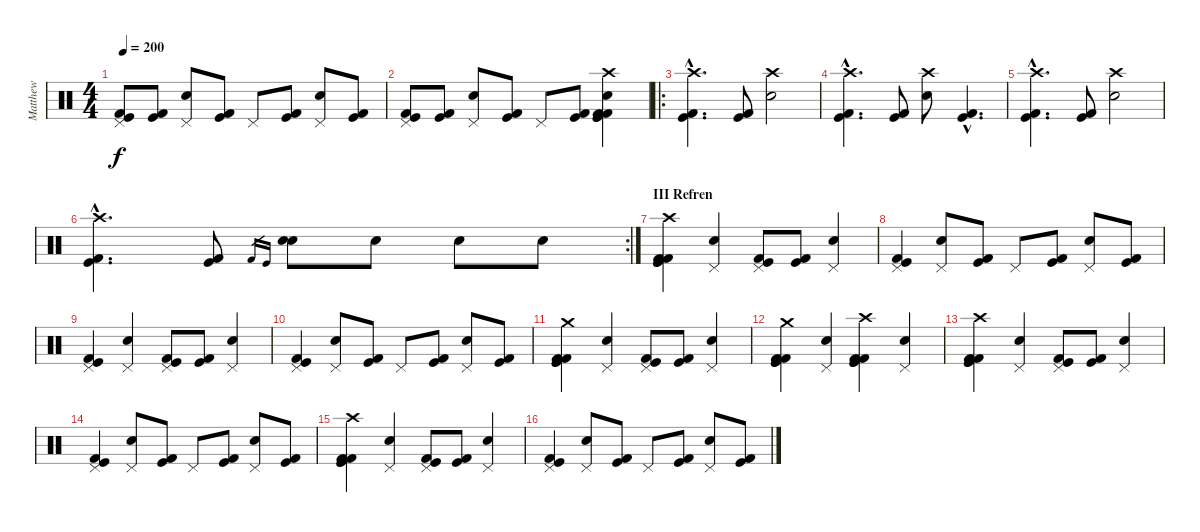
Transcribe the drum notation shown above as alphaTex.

\track ("Matthew" "Matthew") {instrument percussion}
\staff {score}
\articulation defaults
\ts (4 4)
\tempo 200
\clef neutral
\ks c
("Kick (hit) 2" "Kick (hit)" "Pedal Hi-Hat (hit)").8{dy f} ("Kick (hit) 2" "Kick (hit)").8 ("Snare (hit) 2" "Pedal Hi-Hat (hit)").8 ("Kick (hit) 2" "Kick (hit)").8 "Pedal Hi-Hat (hit)".8 ("Kick (hit) 2" "Kick (hit)").8 ("Pedal Hi-Hat (hit)" "Snare (hit) 2").8 ("Kick (hit) 2" "Kick (hit)").8 |
("Kick (hit) 2" "Kick (hit)" "Pedal Hi-Hat (hit)").8 ("Kick (hit) 2" "Kick (hit)").8 ("Snare (hit) 2" "Pedal Hi-Hat (hit)").8 ("Kick (hit) 2" "Kick (hit)").8 "Pedal Hi-Hat (hit)".8 ("Kick (hit) 2" "Kick (hit)").8 ("Kick (hit)" "Snare (hit) 2" "Crash high (hit)" "Kick (hit) 2" "Kick (hit)" "Kick (hit) 2").4 |
\ro
("Kick (hit) 2"{hac} "Kick (hit)"{hac} "Crash high (hit)"{hac}).4{d} ("Kick (hit) 2" "Kick (hit)").8 ("Snare (hit) 2" "Crash high (hit)").2 |
("Kick (hit) 2"{hac} "Kick (hit)"{hac} "Crash high (hit)"{hac}).4{d} ("Kick (hit) 2" "Kick (hit)").8 ("Snare (hit) 2" "Crash high (hit)").8 ("Kick (hit) 2"{hac} "Kick (hit)"{hac}).4{d} |
("Kick (hit) 2"{hac} "Kick (hit)"{hac} "Crash high (hit)"{hac}).4{d} ("Kick (hit) 2" "Kick (hit)").8 ("Snare (hit) 2" "Crash high (hit)").2 |
\rc 2
("Kick (hit) 2"{hac} "Kick (hit)"{hac} "Crash high (hit)"{hac}).4{d} ("Kick (hit) 2" "Kick (hit)").8 "Kick (hit) 2".16{gr} "Kick (hit)".16{gr} ("Snare (hit) 2" "Snare (hit)").8 "Snare (hit) 2".8 "Snare (hit) 2".8 "Snare (hit) 2".8 |
\section ("" "III Refren")
("Kick (hit)" "Kick (hit) 2" "Kick (hit)" "Kick (hit) 2" "Crash high (hit)").4 ("Snare (hit) 2" "Pedal Hi-Hat (hit)").4 ("Kick (hit) 2" "Pedal Hi-Hat (hit)" "Kick (hit)").8 ("Kick (hit)" "Kick (hit) 2").8 ("Snare (hit) 2" "Pedal Hi-Hat (hit)").4 |
("Kick (hit) 2" "Kick (hit)" "Pedal Hi-Hat (hit)").4 ("Snare (hit) 2" "Pedal Hi-Hat (hit)").8 ("Kick (hit) 2" "Kick (hit)").8 "Pedal Hi-Hat (hit)".8 ("Kick (hit) 2" "Kick (hit)").8 ("Snare (hit) 2" "Pedal Hi-Hat (hit)").8 ("Kick (hit)" "Kick (hit) 2").8 |
("Kick (hit)" "Kick (hit) 2" "Pedal Hi-Hat (hit)").4 ("Snare (hit) 2" "Pedal Hi-Hat (hit)").4 ("Kick (hit) 2" "Pedal Hi-Hat (hit)" "Kick (hit)").8 ("Kick (hit)" "Kick (hit) 2").8 ("Snare (hit) 2" "Pedal Hi-Hat (hit)").4 |
("Kick (hit) 2" "Kick (hit)" "Pedal Hi-Hat (hit)").4 ("Snare (hit) 2" "Pedal Hi-Hat (hit)").8 ("Kick (hit) 2" "Kick (hit)").8 "Pedal Hi-Hat (hit)".8 ("Kick (hit) 2" "Kick (hit)").8 ("Snare (hit) 2" "Pedal Hi-Hat (hit)").8 ("Kick (hit)" "Kick (hit) 2").8 |
("Kick (hit)" "Kick (hit) 2" "Kick (hit)" "Kick (hit) 2" "Crash medium (hit)").4 ("Snare (hit) 2" "Pedal Hi-Hat (hit)").4 ("Kick (hit) 2" "Pedal Hi-Hat (hit)" "Kick (hit)").8 ("Kick (hit)" "Kick (hit) 2").8 ("Snare (hit) 2" "Pedal Hi-Hat (hit)").4 |
("Kick (hit)" "Kick (hit) 2" "Kick (hit)" "Kick (hit) 2" "Crash medium (hit)").4 ("Snare (hit) 2" "Pedal Hi-Hat (hit)").4 ("Kick (hit) 2" "Crash high (hit)" "Kick (hit)" "Kick (hit) 2" "Kick (hit)").4 ("Snare (hit) 2" "Pedal Hi-Hat (hit)").4 |
("Kick (hit)" "Kick (hit) 2" "Kick (hit)" "Kick (hit) 2" "Crash high (hit)").4 ("Snare (hit) 2" "Pedal Hi-Hat (hit)").4 ("Kick (hit) 2" "Pedal Hi-Hat (hit)" "Kick (hit)").8 ("Kick (hit)" "Kick (hit) 2").8 ("Snare (hit) 2" "Pedal Hi-Hat (hit)").4 |
("Kick (hit) 2" "Kick (hit)" "Pedal Hi-Hat (hit)").4 ("Snare (hit) 2" "Pedal Hi-Hat (hit)").8 ("Kick (hit) 2" "Kick (hit)").8 "Pedal Hi-Hat (hit)".8 ("Kick (hit) 2" "Kick (hit)").8 ("Snare (hit) 2" "Pedal Hi-Hat (hit)").8 ("Kick (hit)" "Kick (hit) 2").8 |
("Kick (hit)" "Kick (hit) 2" "Kick (hit)" "Kick (hit) 2" "Crash high (hit)").4 ("Snare (hit) 2" "Pedal Hi-Hat (hit)").4 ("Kick (hit) 2" "Pedal Hi-Hat (hit)" "Kick (hit)").8 ("Kick (hit)" "Kick (hit) 2").8 ("Snare (hit) 2" "Pedal Hi-Hat (hit)").4 |
("Kick (hit) 2" "Kick (hit)" "Pedal Hi-Hat (hit)").4 ("Snare (hit) 2" "Pedal Hi-Hat (hit)").8 ("Kick (hit) 2" "Kick (hit)").8 "Pedal Hi-Hat (hit)".8 ("Kick (hit) 2" "Kick (hit)").8 ("Snare (hit) 2" "Pedal Hi-Hat (hit)").8 ("Kick (hit)" "Kick (hit) 2").8
